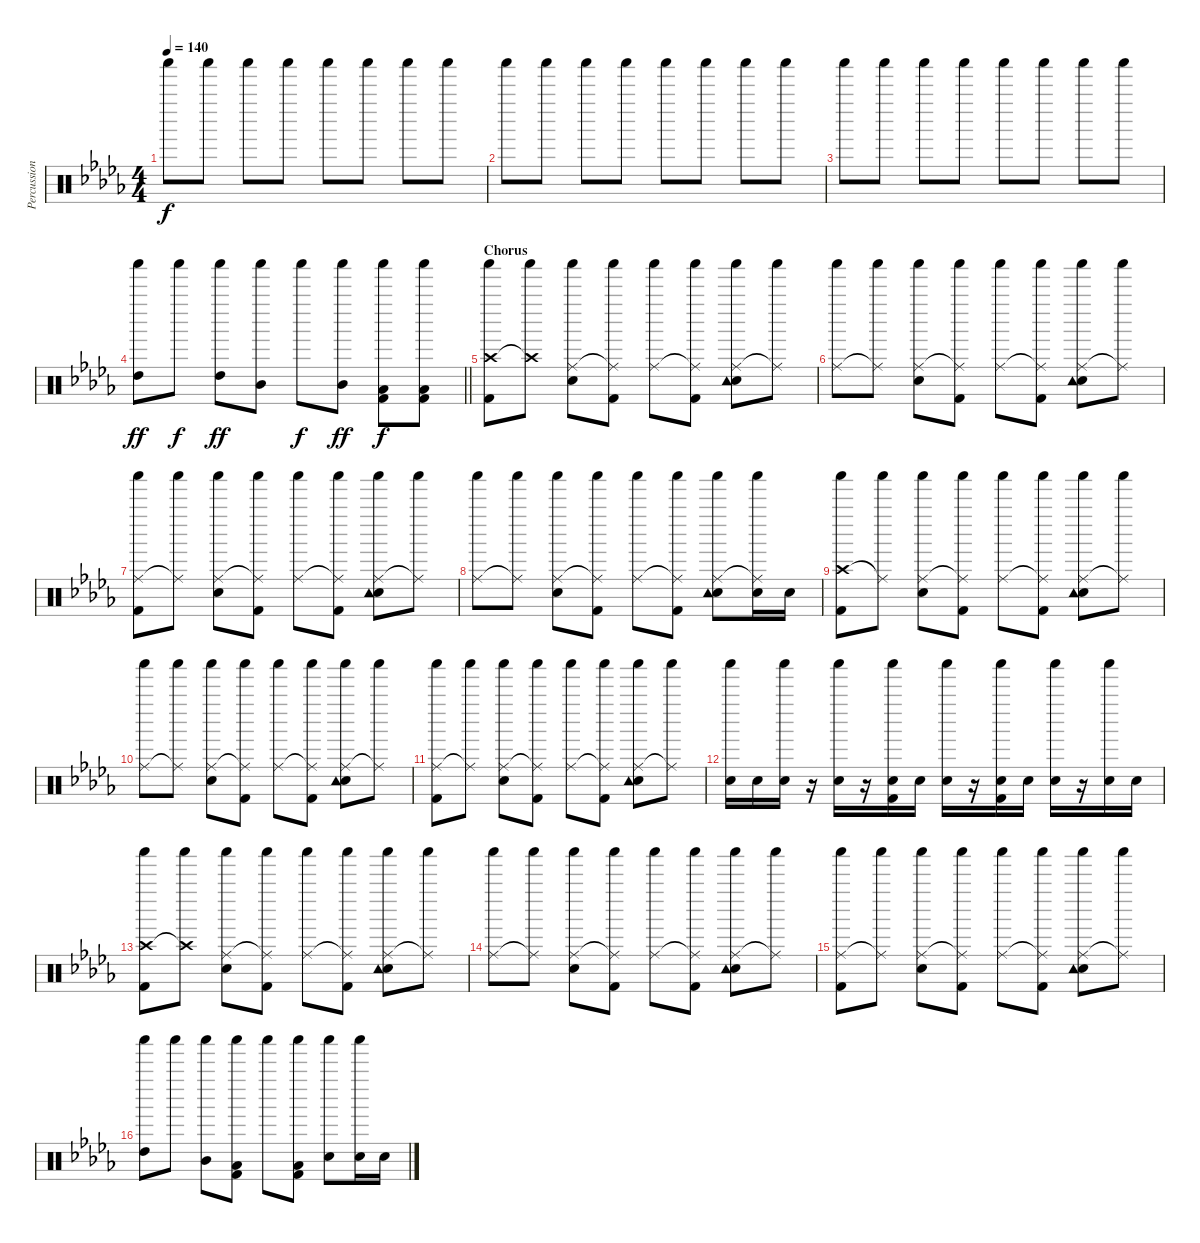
\track ("Percussion" "Percussion") {instrument percussion}
\staff {score}
\articulation defaults
\ts (4 4)
\tempo 140
\clef neutral
\ks db "Shaker (hit)".8{dy f} "Shaker (hit)".8 "Shaker (hit)".8 "Shaker (hit)".8 "Shaker (hit)".8 "Shaker (hit)".8 "Shaker (hit)".8 "Shaker (hit)".8
|
"Shaker (hit)".8 "Shaker (hit)".8 "Shaker (hit)".8 "Shaker (hit)".8 "Shaker (hit)".8 "Shaker (hit)".8 "Shaker (hit)".8 "Shaker (hit)".8 |
"Shaker (hit)".8 "Shaker (hit)".8 "Shaker (hit)".8 "Shaker (hit)".8 "Shaker (hit)".8 "Shaker (hit)".8 "Shaker (hit)".8 "Shaker (hit)".8 |
\barLineRight lightlight
("Shaker (hit)" "High Tom (hit)").8{dy ff} "Shaker (hit)".8{dy f} ("Shaker (hit)" "High Tom (hit)").8{dy ff} ("Shaker (hit)" "Mid Tom (hit)").8 "Shaker (hit)".8{dy f} ("Shaker (hit)" "Mid Tom (hit)").8{dy ff} ("Shaker (hit)" "Low Floor Tom (hit)" "Kick (hit) 2").8{dy f} ("Shaker (hit)" "Low Floor Tom (hit)" "Kick (hit) 2").8 |
\section ("" "Chorus")
("Crash high (hit)" "Shaker (hit)" "Kick (hit) 2").8 ("Crash high (hit)"{t} "Shaker (hit)").8 ("Ride (middle)" "Shaker (hit)" "Snare (hit) 2").8 ("Ride (middle)"{t} "Shaker (hit)" "Kick (hit) 2").8 ("Ride (middle)" "Shaker (hit)").8 ("Ride (middle)"{t} "Shaker (hit)" "Kick (hit) 2").8 ("Ride (middle)" "Shaker (hit)" "Snare (hit) 2" "Tambourine (hit)").8 ("Ride (middle)"{t} "Shaker (hit)").8 |
("Ride (middle)" "Shaker (hit)").8 ("Ride (middle)"{t} "Shaker (hit)").8 ("Ride (middle)" "Shaker (hit)" "Snare (hit) 2").8 ("Ride (middle)"{t} "Shaker (hit)" "Kick (hit) 2").8 ("Ride (middle)" "Shaker (hit)").8 ("Ride (middle)"{t} "Shaker (hit)" "Kick (hit) 2").8 ("Ride (middle)" "Shaker (hit)" "Snare (hit) 2" "Tambourine (hit)").8 ("Ride (middle)"{t} "Shaker (hit)").8 |
("Ride (middle)" "Shaker (hit)" "Kick (hit) 2").8 ("Ride (middle)"{t} "Shaker (hit)").8 ("Ride (middle)" "Shaker (hit)" "Snare (hit) 2").8 ("Ride (middle)"{t} "Shaker (hit)" "Kick (hit) 2").8 ("Ride (middle)" "Shaker (hit)").8 ("Ride (middle)"{t} "Shaker (hit)" "Kick (hit) 2").8 ("Ride (middle)" "Shaker (hit)" "Snare (hit) 2" "Tambourine (hit)").8 ("Ride (middle)"{t} "Shaker (hit)").8 |
("Ride (middle)" "Shaker (hit)").8 ("Ride (middle)"{t} "Shaker (hit)").8 ("Ride (middle)" "Shaker (hit)" "Snare (hit) 2").8 ("Ride (middle)"{t} "Shaker (hit)" "Kick (hit) 2").8 ("Ride (middle)" "Shaker (hit)").8 ("Ride (middle)"{t} "Shaker (hit)" "Kick (hit) 2").8 ("Ride (middle)" "Shaker (hit)" "Snare (hit) 2" "Tambourine (hit)").8 ("Ride (middle)"{t} "Shaker (hit)" "Snare (hit) 2").16 "Snare (hit) 2".16 |
("Crash high (hit)" "Shaker (hit)" "Kick (hit) 2").8 ("Ride (middle)"{t} "Shaker (hit)").8 ("Ride (middle)" "Shaker (hit)" "Snare (hit) 2").8 ("Ride (middle)"{t} "Shaker (hit)" "Kick (hit) 2").8 ("Ride (middle)" "Shaker (hit)").8 ("Ride (middle)"{t} "Shaker (hit)" "Kick (hit) 2").8 ("Ride (middle)" "Shaker (hit)" "Snare (hit) 2" "Tambourine (hit)").8 ("Ride (middle)"{t} "Shaker (hit)").8 |
("Ride (middle)" "Shaker (hit)").8 ("Ride (middle)"{t} "Shaker (hit)").8 ("Ride (middle)" "Shaker (hit)" "Snare (hit) 2").8 ("Ride (middle)"{t} "Shaker (hit)" "Kick (hit) 2").8 ("Ride (middle)" "Shaker (hit)").8 ("Ride (middle)"{t} "Shaker (hit)" "Kick (hit) 2").8 ("Ride (middle)" "Shaker (hit)" "Snare (hit) 2" "Tambourine (hit)").8 ("Ride (middle)"{t} "Shaker (hit)").8 |
("Ride (middle)" "Shaker (hit)" "Kick (hit) 2").8 ("Ride (middle)"{t} "Shaker (hit)").8 ("Ride (middle)" "Shaker (hit)" "Snare (hit) 2").8 ("Ride (middle)"{t} "Shaker (hit)" "Kick (hit) 2").8 ("Ride (middle)" "Shaker (hit)").8 ("Ride (middle)"{t} "Shaker (hit)" "Kick (hit) 2").8 ("Ride (middle)" "Shaker (hit)" "Snare (hit) 2" "Tambourine (hit)").8 ("Ride (middle)"{t} "Shaker (hit)").8 |
("Shaker (hit)" "Snare (hit) 2").16 "Snare (hit) 2".16 ("Shaker (hit)" "Snare (hit) 2").16 r.16 ("Shaker (hit)" "Snare (hit) 2").16 r.16 ("Shaker (hit)" "Snare (hit) 2" "Kick (hit) 2").16 "Snare (hit) 2".16 ("Shaker (hit)" "Snare (hit) 2").16 r.16 ("Shaker (hit)" "Snare (hit) 2" "Kick (hit) 2").16 "Snare (hit) 2".16 ("Shaker (hit)" "Snare (hit) 2").16 r.16 ("Shaker (hit)" "Snare (hit) 2").16 "Snare (hit) 2".16 |
("Crash high (hit)" "Shaker (hit)" "Kick (hit) 2").8 ("Crash high (hit)"{t} "Shaker (hit)").8 ("Ride (middle)" "Shaker (hit)" "Snare (hit) 2").8 ("Ride (middle)"{t} "Shaker (hit)" "Kick (hit) 2").8 ("Ride (middle)" "Shaker (hit)").8 ("Ride (middle)"{t} "Shaker (hit)" "Kick (hit) 2").8 ("Ride (middle)" "Shaker (hit)" "Snare (hit) 2" "Tambourine (hit)").8 ("Ride (middle)"{t} "Shaker (hit)").8 |
("Ride (middle)" "Shaker (hit)").8 ("Ride (middle)"{t} "Shaker (hit)").8 ("Ride (middle)" "Shaker (hit)" "Snare (hit) 2").8 ("Ride (middle)"{t} "Shaker (hit)" "Kick (hit) 2").8 ("Ride (middle)" "Shaker (hit)").8 ("Ride (middle)"{t} "Shaker (hit)" "Kick (hit) 2").8 ("Ride (middle)" "Shaker (hit)" "Snare (hit) 2" "Tambourine (hit)").8 ("Ride (middle)"{t} "Shaker (hit)").8 |
("Ride (middle)" "Shaker (hit)" "Kick (hit) 2").8 ("Ride (middle)"{t} "Shaker (hit)").8 ("Ride (middle)" "Shaker (hit)" "Snare (hit) 2").8 ("Ride (middle)"{t} "Shaker (hit)" "Kick (hit) 2").8 ("Ride (middle)" "Shaker (hit)").8 ("Ride (middle)"{t} "Shaker (hit)" "Kick (hit) 2").8 ("Ride (middle)" "Shaker (hit)" "Snare (hit) 2" "Tambourine (hit)").8 ("Ride (middle)"{t} "Shaker (hit)").8 |
("Shaker (hit)" "High Tom (hit)").8 "Shaker (hit)".8 ("Shaker (hit)" "Mid Tom (hit)").8 ("Shaker (hit)" "Low Floor Tom (hit)" "Kick (hit) 2").8 "Shaker (hit)".8 ("Shaker (hit)" "Low Floor Tom (hit)" "Kick (hit) 2").8 ("Shaker (hit)" "Snare (hit) 2").8 ("Shaker (hit)" "Snare (hit) 2").16 "Snare (hit) 2".16
